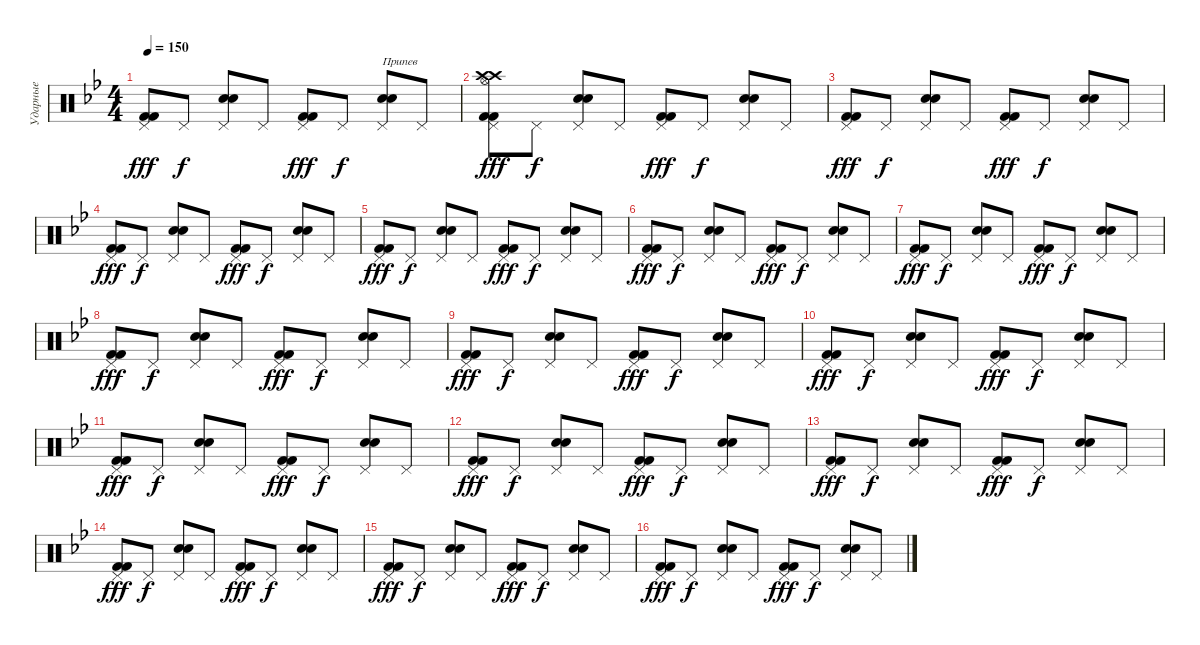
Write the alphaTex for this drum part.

\track ("Ударные" "Ударные") {instrument percussion}
\staff {score}
\articulation defaults
\ts (4 4)
\tempo 150
\clef neutral
\ks gminor
("Kick (hit) 2" "Kick (hit) 2" "Pedal Hi-Hat (hit)").8{dy fff} "Pedal Hi-Hat (hit)".8{dy f} ("Electric Snare (hit)" "Electric Snare (hit)" "Pedal Hi-Hat (hit)").8 "Pedal Hi-Hat (hit)".8 ("Kick (hit) 2" "Kick (hit) 2" "Pedal Hi-Hat (hit)").8{dy fff} "Pedal Hi-Hat (hit)".8{dy f} ("Electric Snare (hit)" "Electric Snare (hit)" "Pedal Hi-Hat (hit)").8{txt "Припев"} "Pedal Hi-Hat (hit)".8 |
("Kick (hit) 2" "Crash high (hit)" "Kick (hit) 2" "Crash high (hit)" "Pedal Hi-Hat (hit)" "Hi-Hat (open)").8{dy fff} "Pedal Hi-Hat (hit)".8{dy f} ("Electric Snare (hit)" "Electric Snare (hit)" "Pedal Hi-Hat (hit)").8 "Pedal Hi-Hat (hit)".8 ("Kick (hit) 2" "Kick (hit) 2" "Pedal Hi-Hat (hit)").8{dy fff} "Pedal Hi-Hat (hit)".8{dy f} ("Electric Snare (hit)" "Electric Snare (hit)" "Pedal Hi-Hat (hit)").8 "Pedal Hi-Hat (hit)".8 |
("Kick (hit) 2" "Kick (hit) 2" "Pedal Hi-Hat (hit)").8{dy fff} "Pedal Hi-Hat (hit)".8{dy f} ("Electric Snare (hit)" "Electric Snare (hit)" "Pedal Hi-Hat (hit)").8 "Pedal Hi-Hat (hit)".8 ("Kick (hit) 2" "Kick (hit) 2" "Pedal Hi-Hat (hit)").8{dy fff} "Pedal Hi-Hat (hit)".8{dy f} ("Electric Snare (hit)" "Electric Snare (hit)" "Pedal Hi-Hat (hit)").8 "Pedal Hi-Hat (hit)".8 |
("Kick (hit) 2" "Kick (hit) 2" "Pedal Hi-Hat (hit)").8{dy fff} "Pedal Hi-Hat (hit)".8{dy f} ("Electric Snare (hit)" "Electric Snare (hit)" "Pedal Hi-Hat (hit)").8 "Pedal Hi-Hat (hit)".8 ("Kick (hit) 2" "Kick (hit) 2" "Pedal Hi-Hat (hit)").8{dy fff} "Pedal Hi-Hat (hit)".8{dy f} ("Electric Snare (hit)" "Electric Snare (hit)" "Pedal Hi-Hat (hit)").8 "Pedal Hi-Hat (hit)".8 |
("Kick (hit) 2" "Kick (hit) 2" "Pedal Hi-Hat (hit)").8{dy fff} "Pedal Hi-Hat (hit)".8{dy f} ("Electric Snare (hit)" "Electric Snare (hit)" "Pedal Hi-Hat (hit)").8 "Pedal Hi-Hat (hit)".8 ("Kick (hit) 2" "Kick (hit) 2" "Pedal Hi-Hat (hit)").8{dy fff} "Pedal Hi-Hat (hit)".8{dy f} ("Electric Snare (hit)" "Electric Snare (hit)" "Pedal Hi-Hat (hit)").8 "Pedal Hi-Hat (hit)".8 |
("Kick (hit) 2" "Kick (hit) 2" "Pedal Hi-Hat (hit)").8{dy fff} "Pedal Hi-Hat (hit)".8{dy f} ("Electric Snare (hit)" "Electric Snare (hit)" "Pedal Hi-Hat (hit)").8 "Pedal Hi-Hat (hit)".8 ("Kick (hit) 2" "Kick (hit) 2" "Pedal Hi-Hat (hit)").8{dy fff} "Pedal Hi-Hat (hit)".8{dy f} ("Electric Snare (hit)" "Electric Snare (hit)" "Pedal Hi-Hat (hit)").8 "Pedal Hi-Hat (hit)".8 |
("Kick (hit) 2" "Kick (hit) 2" "Pedal Hi-Hat (hit)").8{dy fff} "Pedal Hi-Hat (hit)".8{dy f} ("Electric Snare (hit)" "Electric Snare (hit)" "Pedal Hi-Hat (hit)").8 "Pedal Hi-Hat (hit)".8 ("Kick (hit) 2" "Kick (hit) 2" "Pedal Hi-Hat (hit)").8{dy fff} "Pedal Hi-Hat (hit)".8{dy f} ("Electric Snare (hit)" "Electric Snare (hit)" "Pedal Hi-Hat (hit)").8 "Pedal Hi-Hat (hit)".8 |
("Kick (hit) 2" "Kick (hit) 2" "Pedal Hi-Hat (hit)").8{dy fff} "Pedal Hi-Hat (hit)".8{dy f} ("Electric Snare (hit)" "Electric Snare (hit)" "Pedal Hi-Hat (hit)").8 "Pedal Hi-Hat (hit)".8 ("Kick (hit) 2" "Kick (hit) 2" "Pedal Hi-Hat (hit)").8{dy fff} "Pedal Hi-Hat (hit)".8{dy f} ("Electric Snare (hit)" "Electric Snare (hit)" "Pedal Hi-Hat (hit)").8 "Pedal Hi-Hat (hit)".8 |
("Kick (hit) 2" "Kick (hit) 2" "Pedal Hi-Hat (hit)").8{dy fff} "Pedal Hi-Hat (hit)".8{dy f} ("Electric Snare (hit)" "Electric Snare (hit)" "Pedal Hi-Hat (hit)").8 "Pedal Hi-Hat (hit)".8 ("Kick (hit) 2" "Kick (hit) 2" "Pedal Hi-Hat (hit)").8{dy fff} "Pedal Hi-Hat (hit)".8{dy f} ("Electric Snare (hit)" "Electric Snare (hit)" "Pedal Hi-Hat (hit)").8 "Pedal Hi-Hat (hit)".8 |
("Kick (hit) 2" "Kick (hit) 2" "Pedal Hi-Hat (hit)").8{dy fff} "Pedal Hi-Hat (hit)".8{dy f} ("Electric Snare (hit)" "Electric Snare (hit)" "Pedal Hi-Hat (hit)").8 "Pedal Hi-Hat (hit)".8 ("Kick (hit) 2" "Kick (hit) 2" "Pedal Hi-Hat (hit)").8{dy fff} "Pedal Hi-Hat (hit)".8{dy f} ("Electric Snare (hit)" "Electric Snare (hit)" "Pedal Hi-Hat (hit)").8 "Pedal Hi-Hat (hit)".8 |
("Kick (hit) 2" "Kick (hit) 2" "Pedal Hi-Hat (hit)").8{dy fff} "Pedal Hi-Hat (hit)".8{dy f} ("Electric Snare (hit)" "Electric Snare (hit)" "Pedal Hi-Hat (hit)").8 "Pedal Hi-Hat (hit)".8 ("Kick (hit) 2" "Kick (hit) 2" "Pedal Hi-Hat (hit)").8{dy fff} "Pedal Hi-Hat (hit)".8{dy f} ("Electric Snare (hit)" "Electric Snare (hit)" "Pedal Hi-Hat (hit)").8 "Pedal Hi-Hat (hit)".8 |
("Kick (hit) 2" "Kick (hit) 2" "Pedal Hi-Hat (hit)").8{dy fff} "Pedal Hi-Hat (hit)".8{dy f} ("Electric Snare (hit)" "Electric Snare (hit)" "Pedal Hi-Hat (hit)").8 "Pedal Hi-Hat (hit)".8 ("Kick (hit) 2" "Kick (hit) 2" "Pedal Hi-Hat (hit)").8{dy fff} "Pedal Hi-Hat (hit)".8{dy f} ("Electric Snare (hit)" "Electric Snare (hit)" "Pedal Hi-Hat (hit)").8 "Pedal Hi-Hat (hit)".8 |
("Kick (hit) 2" "Kick (hit) 2" "Pedal Hi-Hat (hit)").8{dy fff} "Pedal Hi-Hat (hit)".8{dy f} ("Electric Snare (hit)" "Electric Snare (hit)" "Pedal Hi-Hat (hit)").8 "Pedal Hi-Hat (hit)".8 ("Kick (hit) 2" "Kick (hit) 2" "Pedal Hi-Hat (hit)").8{dy fff} "Pedal Hi-Hat (hit)".8{dy f} ("Electric Snare (hit)" "Electric Snare (hit)" "Pedal Hi-Hat (hit)").8 "Pedal Hi-Hat (hit)".8 |
("Kick (hit) 2" "Kick (hit) 2" "Pedal Hi-Hat (hit)").8{dy fff} "Pedal Hi-Hat (hit)".8{dy f} ("Electric Snare (hit)" "Electric Snare (hit)" "Pedal Hi-Hat (hit)").8 "Pedal Hi-Hat (hit)".8 ("Kick (hit) 2" "Kick (hit) 2" "Pedal Hi-Hat (hit)").8{dy fff} "Pedal Hi-Hat (hit)".8{dy f} ("Electric Snare (hit)" "Electric Snare (hit)" "Pedal Hi-Hat (hit)").8 "Pedal Hi-Hat (hit)".8 |
("Kick (hit) 2" "Kick (hit) 2" "Pedal Hi-Hat (hit)").8{dy fff} "Pedal Hi-Hat (hit)".8{dy f} ("Electric Snare (hit)" "Electric Snare (hit)" "Pedal Hi-Hat (hit)").8 "Pedal Hi-Hat (hit)".8 ("Kick (hit) 2" "Kick (hit) 2" "Pedal Hi-Hat (hit)").8{dy fff} "Pedal Hi-Hat (hit)".8{dy f} ("Electric Snare (hit)" "Electric Snare (hit)" "Pedal Hi-Hat (hit)").8 "Pedal Hi-Hat (hit)".8 |
("Kick (hit) 2" "Kick (hit) 2" "Pedal Hi-Hat (hit)").8{dy fff} "Pedal Hi-Hat (hit)".8{dy f} ("Electric Snare (hit)" "Electric Snare (hit)" "Pedal Hi-Hat (hit)").8 "Pedal Hi-Hat (hit)".8 ("Kick (hit) 2" "Kick (hit) 2" "Pedal Hi-Hat (hit)").8{dy fff} "Pedal Hi-Hat (hit)".8{dy f} ("Electric Snare (hit)" "Electric Snare (hit)" "Pedal Hi-Hat (hit)").8 "Pedal Hi-Hat (hit)".8
